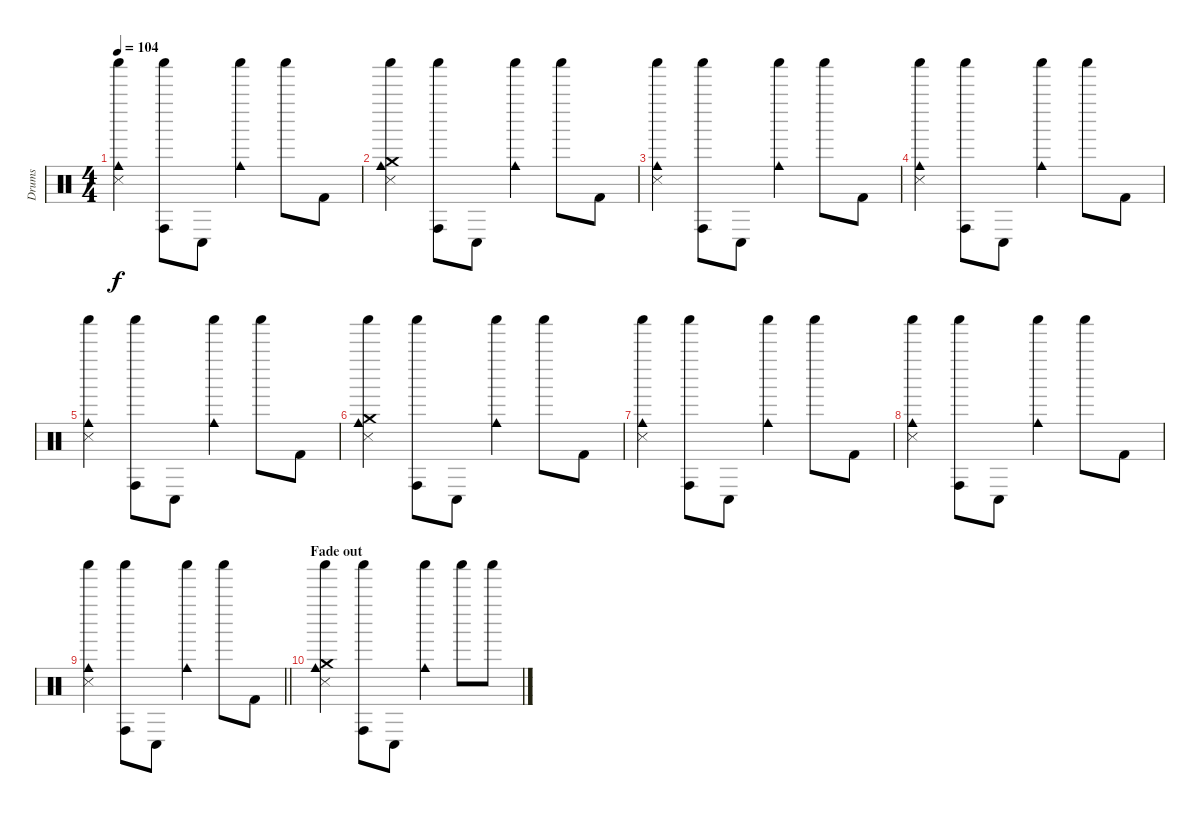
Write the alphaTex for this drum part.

\track ("Drums" "Drums") {instrument percussion}
\staff {score}
\articulation defaults
\ts (4 4)
\tempo 104
\clef neutral
\ks c
("Snare (side stick) 3" "Shaker (hit)" "Cowbell medium (hit)").4{dy f} ("Shaker (hit)" "Conga high (hit)").8 "Conga low (hit)".8 ("Shaker (hit)" "Cowbell medium (hit)").4 "Shaker (hit)".8 "Kick (hit) 2".8 |
("Snare (side stick) 3" "Shaker (hit)" "Cowbell medium (hit)" "Crash medium (hit)").4 ("Shaker (hit)" "Conga high (hit)").8 "Conga low (hit)".8 ("Shaker (hit)" "Cowbell medium (hit)").4 "Shaker (hit)".8 "Kick (hit) 2".8 |
("Snare (side stick) 3" "Shaker (hit)" "Cowbell medium (hit)").4 ("Shaker (hit)" "Conga high (hit)").8 "Conga low (hit)".8 ("Shaker (hit)" "Cowbell medium (hit)").4 "Shaker (hit)".8 "Kick (hit) 2".8 |
("Snare (side stick) 3" "Shaker (hit)" "Cowbell medium (hit)").4 ("Shaker (hit)" "Conga high (hit)").8 "Conga low (hit)".8 ("Shaker (hit)" "Cowbell medium (hit)").4 "Shaker (hit)".8 "Kick (hit) 2".8 |
("Snare (side stick) 3" "Shaker (hit)" "Cowbell medium (hit)").4 ("Shaker (hit)" "Conga high (hit)").8 "Conga low (hit)".8 ("Shaker (hit)" "Cowbell medium (hit)").4 "Shaker (hit)".8 "Kick (hit) 2".8 |
("Snare (side stick) 3" "Shaker (hit)" "Cowbell medium (hit)" "Crash medium (hit)").4 ("Shaker (hit)" "Conga high (hit)").8 "Conga low (hit)".8 ("Shaker (hit)" "Cowbell medium (hit)").4 "Shaker (hit)".8 "Kick (hit) 2".8 |
("Snare (side stick) 3" "Shaker (hit)" "Cowbell medium (hit)").4 ("Shaker (hit)" "Conga high (hit)").8 "Conga low (hit)".8 ("Shaker (hit)" "Cowbell medium (hit)").4 "Shaker (hit)".8 "Kick (hit) 2".8 |
("Snare (side stick) 3" "Shaker (hit)" "Cowbell medium (hit)").4 ("Shaker (hit)" "Conga high (hit)").8 "Conga low (hit)".8 ("Shaker (hit)" "Cowbell medium (hit)").4 "Shaker (hit)".8 "Kick (hit) 2".8 |
\barLineRight lightlight
("Snare (side stick) 3" "Shaker (hit)" "Cowbell medium (hit)").4 ("Shaker (hit)" "Conga high (hit)").8 "Conga low (hit)".8 ("Shaker (hit)" "Cowbell medium (hit)").4 "Shaker (hit)".8 "Kick (hit) 2".8 |
\section ("" "Fade out")
("Snare (side stick) 3" "Shaker (hit)" "Cowbell medium (hit)" "Crash medium (hit)").4 ("Shaker (hit)" "Conga high (hit)").8 "Conga low (hit)".8 ("Shaker (hit)" "Cowbell medium (hit)").4 "Shaker (hit)".8 "Shaker (hit)".8
